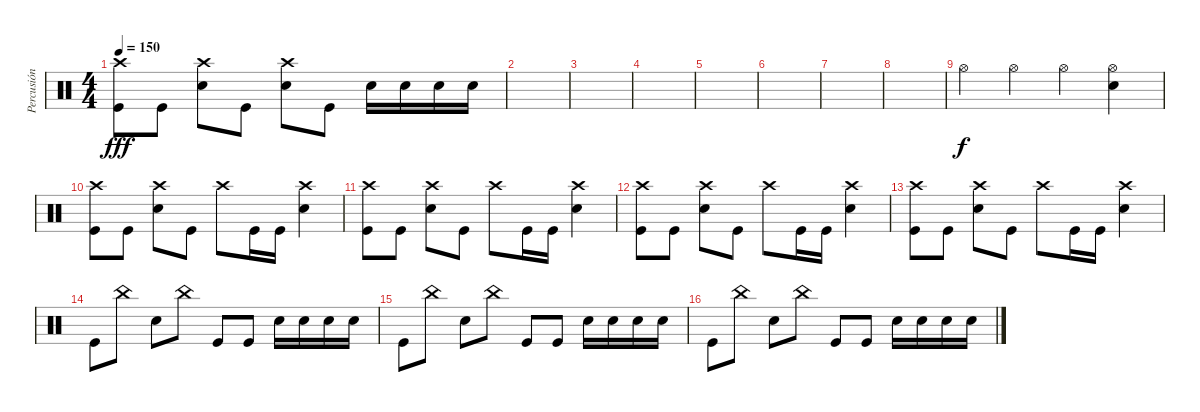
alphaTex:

\track ("Percusión" "Percusión") {instrument percussion}
\staff {score}
\articulation defaults
\ts (4 4)
\tempo 150
\clef neutral
\ks c
("Crash high (hit)" "Kick (hit)").8{dy fff} "Kick (hit)".8 ("Crash high (hit)" "Snare (hit) 2").8 "Kick (hit)".8 ("Crash high (hit)" "Snare (hit) 2").8 "Kick (hit)".8 "Snare (hit) 2".16 "Snare (hit) 2".16 "Snare (hit) 2".16 "Snare (hit) 2".16 |
|
|
|
|
|
|
|
"Hi-Hat (open)".4{dy f} "Hi-Hat (open)".4 "Hi-Hat (open)".4 ("Hi-Hat (open)" "Snare (hit) 2").4 |
("Kick (hit)" "Crash high (hit)").8 "Kick (hit)".8 ("Snare (hit) 2" "Crash high (hit)").8 "Kick (hit)".8 "Crash high (hit)".8 "Kick (hit)".16 "Kick (hit)".16 ("Crash high (hit)" "Snare (hit) 2").4 |
("Kick (hit)" "Crash high (hit)").8 "Kick (hit)".8 ("Snare (hit) 2" "Crash high (hit)").8 "Kick (hit)".8 "Crash high (hit)".8 "Kick (hit)".16 "Kick (hit)".16 ("Crash high (hit)" "Snare (hit) 2").4 |
("Kick (hit)" "Crash high (hit)").8 "Kick (hit)".8 ("Snare (hit) 2" "Crash high (hit)").8 "Kick (hit)".8 "Crash high (hit)".8 "Kick (hit)".16 "Kick (hit)".16 ("Crash high (hit)" "Snare (hit) 2").4 |
("Kick (hit)" "Crash high (hit)").8 "Kick (hit)".8 ("Snare (hit) 2" "Crash high (hit)").8 "Kick (hit)".8 "Crash high (hit)".8 "Kick (hit)".16 "Kick (hit)".16 ("Crash high (hit)" "Snare (hit) 2").4 |
"Kick (hit)".8 "China (hit)".8 "Snare (hit) 2".8 "China (hit)".8 "Kick (hit)".8 "Kick (hit)".8 "Snare (hit) 2".16 "Snare (hit) 2".16 "Snare (hit) 2".16 "Snare (hit) 2".16 |
"Kick (hit)".8 "China (hit)".8 "Snare (hit) 2".8 "China (hit)".8 "Kick (hit)".8 "Kick (hit)".8 "Snare (hit) 2".16 "Snare (hit) 2".16 "Snare (hit) 2".16 "Snare (hit) 2".16 |
"Kick (hit)".8 "China (hit)".8 "Snare (hit) 2".8 "China (hit)".8 "Kick (hit)".8 "Kick (hit)".8 "Snare (hit) 2".16 "Snare (hit) 2".16 "Snare (hit) 2".16 "Snare (hit) 2".16
